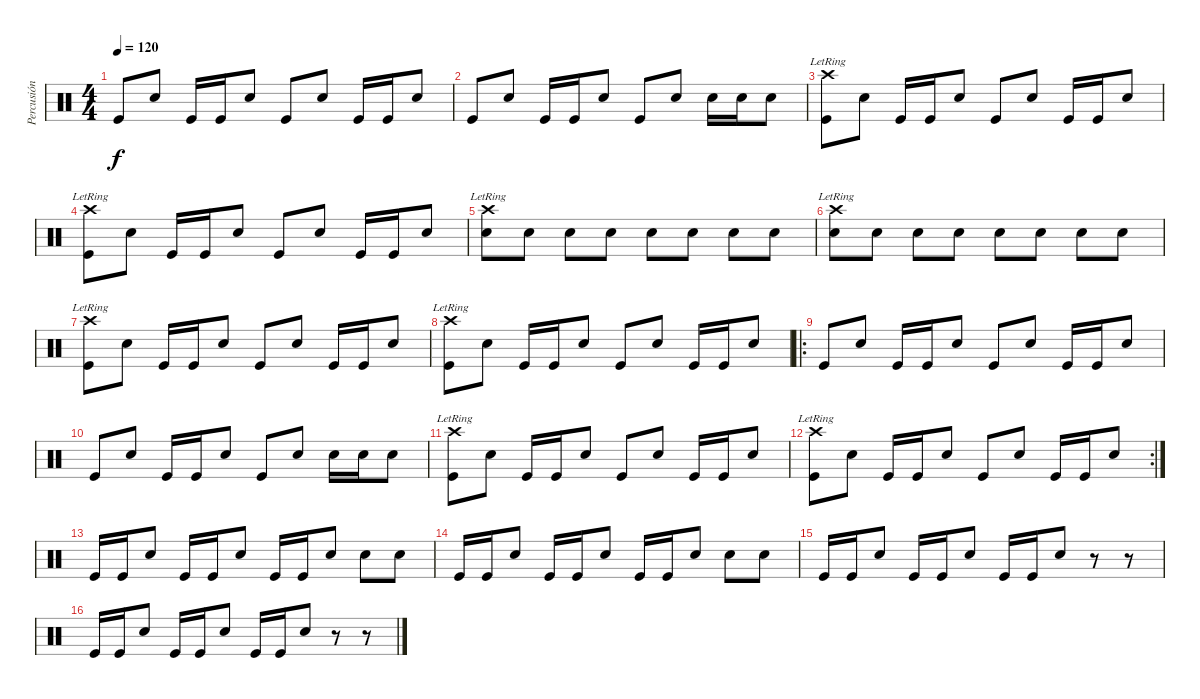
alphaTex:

\track ("Percusión" "Percusión") {instrument percussion}
\staff {score}
\articulation defaults
\ts (4 4)
\tempo 120
\clef neutral
\ks c "Kick (hit)".8{dy f} "Electric Snare (hit)".8 "Kick (hit)".16 "Kick (hit)".16 "Electric Snare (hit)".8 "Kick (hit)".8 "Electric Snare (hit)".8 "Kick (hit)".16 "Kick (hit)".16 "Electric Snare (hit)".8
|
"Kick (hit)".8 "Electric Snare (hit)".8 "Kick (hit)".16 "Kick (hit)".16 "Electric Snare (hit)".8 "Kick (hit)".8 "Electric Snare (hit)".8 "Electric Snare (hit)".16 "Electric Snare (hit)".16 "Electric Snare (hit)".8 |
("Kick (hit)" "Crash high (hit)"{lr}).8 "Electric Snare (hit)".8 "Kick (hit)".16 "Kick (hit)".16 "Electric Snare (hit)".8 "Kick (hit)".8 "Electric Snare (hit)".8 "Kick (hit)".16 "Kick (hit)".16 "Electric Snare (hit)".8 |
("Kick (hit)" "Crash high (hit)"{lr}).8 "Electric Snare (hit)".8 "Kick (hit)".16 "Kick (hit)".16 "Electric Snare (hit)".8 "Kick (hit)".8 "Electric Snare (hit)".8 "Kick (hit)".16 "Kick (hit)".16 "Electric Snare (hit)".8 |
("Electric Snare (hit)" "Crash high (hit)"{lr}).8 "Electric Snare (hit)".8 "Electric Snare (hit)".8 "Electric Snare (hit)".8 "Electric Snare (hit)".8 "Electric Snare (hit)".8 "Electric Snare (hit)".8 "Electric Snare (hit)".8 |
("Electric Snare (hit)" "Crash high (hit)"{lr}).8 "Electric Snare (hit)".8 "Electric Snare (hit)".8 "Electric Snare (hit)".8 "Electric Snare (hit)".8 "Electric Snare (hit)".8 "Electric Snare (hit)".8 "Electric Snare (hit)".8 |
("Kick (hit)" "Crash high (hit)"{lr}).8 "Electric Snare (hit)".8 "Kick (hit)".16 "Kick (hit)".16 "Electric Snare (hit)".8 "Kick (hit)".8 "Electric Snare (hit)".8 "Kick (hit)".16 "Kick (hit)".16 "Electric Snare (hit)".8 |
("Kick (hit)" "Crash high (hit)"{lr}).8 "Electric Snare (hit)".8 "Kick (hit)".16 "Kick (hit)".16 "Electric Snare (hit)".8 "Kick (hit)".8 "Electric Snare (hit)".8 "Kick (hit)".16 "Kick (hit)".16 "Electric Snare (hit)".8 |
\ro "Kick (hit)".8 "Electric Snare (hit)".8 "Kick (hit)".16 "Kick (hit)".16 "Electric Snare (hit)".8 "Kick (hit)".8 "Electric Snare (hit)".8 "Kick (hit)".16 "Kick (hit)".16 "Electric Snare (hit)".8
|
"Kick (hit)".8 "Electric Snare (hit)".8 "Kick (hit)".16 "Kick (hit)".16 "Electric Snare (hit)".8 "Kick (hit)".8 "Electric Snare (hit)".8 "Electric Snare (hit)".16 "Electric Snare (hit)".16 "Electric Snare (hit)".8 |
("Kick (hit)" "Crash high (hit)"{lr}).8 "Electric Snare (hit)".8 "Kick (hit)".16 "Kick (hit)".16 "Electric Snare (hit)".8 "Kick (hit)".8 "Electric Snare (hit)".8 "Kick (hit)".16 "Kick (hit)".16 "Electric Snare (hit)".8 |
\rc 2
("Kick (hit)" "Crash high (hit)"{lr}).8 "Electric Snare (hit)".8 "Kick (hit)".16 "Kick (hit)".16 "Electric Snare (hit)".8 "Kick (hit)".8 "Electric Snare (hit)".8 "Kick (hit)".16 "Kick (hit)".16 "Electric Snare (hit)".8 |
"Kick (hit)".16 "Kick (hit)".16 "Electric Snare (hit)".8 "Kick (hit)".16 "Kick (hit)".16 "Electric Snare (hit)".8 "Kick (hit)".16 "Kick (hit)".16 "Electric Snare (hit)".8 "Electric Snare (hit)".8 "Electric Snare (hit)".8 |
"Kick (hit)".16 "Kick (hit)".16 "Electric Snare (hit)".8 "Kick (hit)".16 "Kick (hit)".16 "Electric Snare (hit)".8 "Kick (hit)".16 "Kick (hit)".16 "Electric Snare (hit)".8 "Electric Snare (hit)".8 "Electric Snare (hit)".8 |
"Kick (hit)".16 "Kick (hit)".16 "Electric Snare (hit)".8 "Kick (hit)".16 "Kick (hit)".16 "Electric Snare (hit)".8 "Kick (hit)".16 "Kick (hit)".16 "Electric Snare (hit)".8 r.8 r.8 |
"Kick (hit)".16 "Kick (hit)".16 "Electric Snare (hit)".8 "Kick (hit)".16 "Kick (hit)".16 "Electric Snare (hit)".8 "Kick (hit)".16 "Kick (hit)".16 "Electric Snare (hit)".8 r.8 r.8
